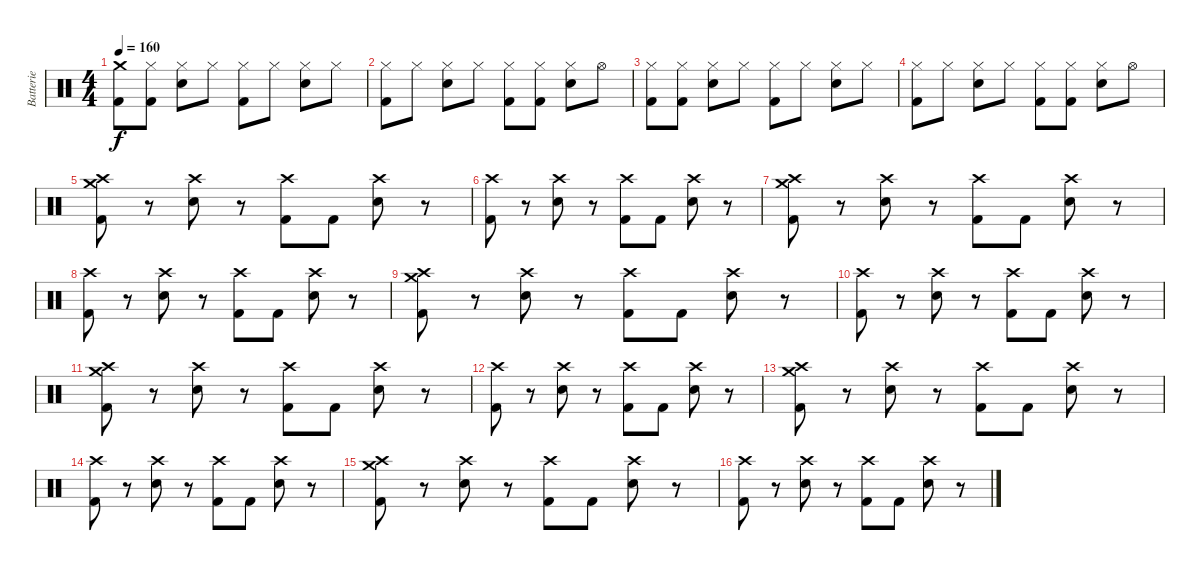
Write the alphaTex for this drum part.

\track ("Batterie" "Batterie") {instrument percussion}
\staff {score}
\articulation defaults
\ts (4 4)
\tempo 160
\clef neutral
\ks c
("Crash medium (hit)" "Kick (hit) 2").8{dy f} ("Hi-Hat (closed)" "Kick (hit) 2").8 ("Hi-Hat (closed)" "Snare (hit) 2").8 "Hi-Hat (closed)".8 ("Hi-Hat (closed)" "Kick (hit) 2").8 "Hi-Hat (closed)".8 ("Hi-Hat (closed)" "Snare (hit) 2").8 "Hi-Hat (closed)".8 |
("Hi-Hat (closed)" "Kick (hit) 2").8 "Hi-Hat (closed)".8 ("Hi-Hat (closed)" "Snare (hit) 2").8 "Hi-Hat (closed)".8 ("Hi-Hat (closed)" "Kick (hit) 2").8 ("Hi-Hat (closed)" "Kick (hit) 2").8 ("Hi-Hat (closed)" "Snare (hit) 2").8 "Hi-Hat (open)".8 |
("Hi-Hat (closed)" "Kick (hit) 2").8 ("Hi-Hat (closed)" "Kick (hit) 2").8 ("Hi-Hat (closed)" "Snare (hit) 2").8 "Hi-Hat (closed)".8 ("Hi-Hat (closed)" "Kick (hit) 2").8 "Hi-Hat (closed)".8 ("Hi-Hat (closed)" "Snare (hit) 2").8 "Hi-Hat (closed)".8 |
("Hi-Hat (closed)" "Kick (hit) 2").8 "Hi-Hat (closed)".8 ("Hi-Hat (closed)" "Snare (hit) 2").8 "Hi-Hat (closed)".8 ("Hi-Hat (closed)" "Kick (hit) 2").8 ("Hi-Hat (closed)" "Kick (hit) 2").8 ("Hi-Hat (closed)" "Snare (hit) 2").8 "Hi-Hat (open)".8 |
("Crash high (hit)" "Crash medium (hit)" "Kick (hit) 2").8 r.8 ("Crash high (hit)" "Snare (hit) 2").8 r.8 ("Crash high (hit)" "Kick (hit) 2").8 "Kick (hit) 2".8 ("Crash high (hit)" "Snare (hit) 2").8 r.8 |
("Crash high (hit)" "Kick (hit) 2").8 r.8 ("Crash high (hit)" "Snare (hit) 2").8 r.8 ("Crash high (hit)" "Kick (hit) 2").8 "Kick (hit) 2".8 ("Crash high (hit)" "Snare (hit) 2").8 r.8 |
("Crash high (hit)" "Crash medium (hit)" "Kick (hit) 2").8 r.8 ("Crash high (hit)" "Snare (hit) 2").8 r.8 ("Crash high (hit)" "Kick (hit) 2").8 "Kick (hit) 2".8 ("Crash high (hit)" "Snare (hit) 2").8 r.8 |
("Crash high (hit)" "Kick (hit) 2").8 r.8 ("Crash high (hit)" "Snare (hit) 2").8 r.8 ("Crash high (hit)" "Kick (hit) 2").8 "Kick (hit) 2".8 ("Crash high (hit)" "Snare (hit) 2").8 r.8 |
("Crash high (hit)" "Crash medium (hit)" "Kick (hit) 2").8 r.8 ("Crash high (hit)" "Snare (hit) 2").8 r.8 ("Crash high (hit)" "Kick (hit) 2").8 "Kick (hit) 2".8 ("Crash high (hit)" "Snare (hit) 2").8 r.8 |
("Crash high (hit)" "Kick (hit) 2").8 r.8 ("Crash high (hit)" "Snare (hit) 2").8 r.8 ("Crash high (hit)" "Kick (hit) 2").8 "Kick (hit) 2".8 ("Crash high (hit)" "Snare (hit) 2").8 r.8 |
("Crash high (hit)" "Crash medium (hit)" "Kick (hit) 2").8 r.8 ("Crash high (hit)" "Snare (hit) 2").8 r.8 ("Crash high (hit)" "Kick (hit) 2").8 "Kick (hit) 2".8 ("Crash high (hit)" "Snare (hit) 2").8 r.8 |
("Crash high (hit)" "Kick (hit) 2").8 r.8 ("Crash high (hit)" "Snare (hit) 2").8 r.8 ("Crash high (hit)" "Kick (hit) 2").8 "Kick (hit) 2".8 ("Crash high (hit)" "Snare (hit) 2").8 r.8 |
("Crash high (hit)" "Crash medium (hit)" "Kick (hit) 2").8 r.8 ("Crash high (hit)" "Snare (hit) 2").8 r.8 ("Crash high (hit)" "Kick (hit) 2").8 "Kick (hit) 2".8 ("Crash high (hit)" "Snare (hit) 2").8 r.8 |
("Crash high (hit)" "Kick (hit) 2").8 r.8 ("Crash high (hit)" "Snare (hit) 2").8 r.8 ("Crash high (hit)" "Kick (hit) 2").8 "Kick (hit) 2".8 ("Crash high (hit)" "Snare (hit) 2").8 r.8 |
("Crash high (hit)" "Crash medium (hit)" "Kick (hit) 2").8 r.8 ("Crash high (hit)" "Snare (hit) 2").8 r.8 ("Crash high (hit)" "Kick (hit) 2").8 "Kick (hit) 2".8 ("Crash high (hit)" "Snare (hit) 2").8 r.8 |
("Crash high (hit)" "Kick (hit) 2").8 r.8 ("Crash high (hit)" "Snare (hit) 2").8 r.8 ("Crash high (hit)" "Kick (hit) 2").8 "Kick (hit) 2".8 ("Crash high (hit)" "Snare (hit) 2").8 r.8
